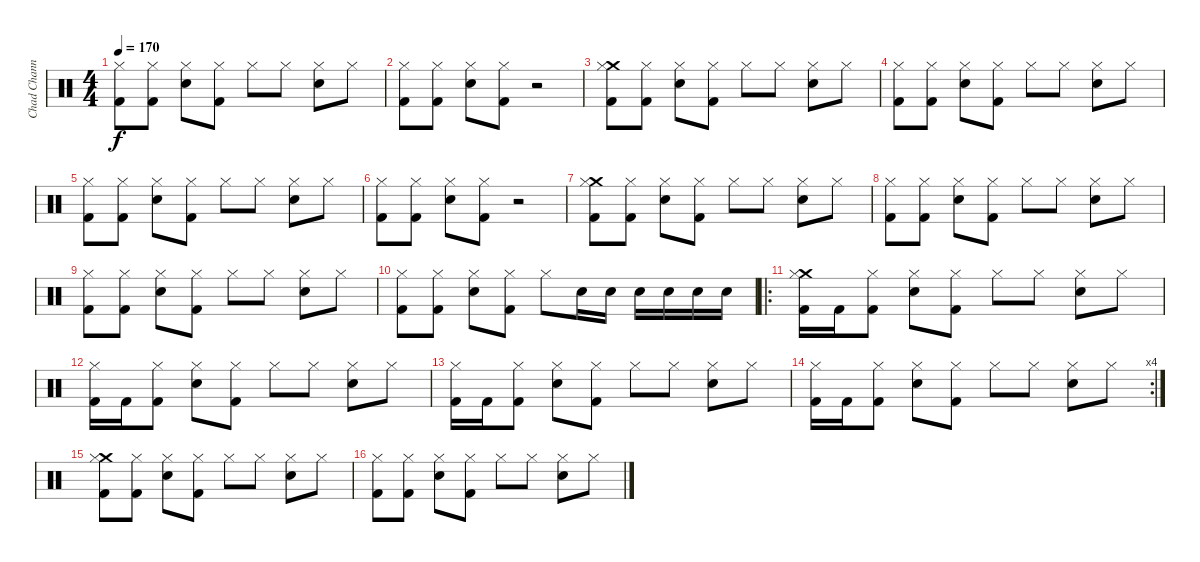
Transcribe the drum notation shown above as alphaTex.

\track ("Chad Channing" "Chad Chann") {instrument percussion}
\staff {score}
\articulation defaults
\ts (4 4)
\tempo 170
\clef neutral
\ks c
("Hi-Hat (closed)" "Kick (hit) 2").8{dy f} ("Hi-Hat (closed)" "Kick (hit) 2").8 ("Hi-Hat (closed)" "Snare (hit) 2").8 ("Hi-Hat (closed)" "Kick (hit) 2").8 "Hi-Hat (closed)".8 "Hi-Hat (closed)".8 ("Hi-Hat (closed)" "Snare (hit) 2").8 "Hi-Hat (closed)".8 |
("Hi-Hat (closed)" "Kick (hit) 2").8 ("Hi-Hat (closed)" "Kick (hit) 2").8 ("Hi-Hat (closed)" "Snare (hit) 2").8 ("Hi-Hat (closed)" "Kick (hit) 2").8 r.2 |
("Crash medium (hit)" "Hi-Hat (closed)" "Kick (hit) 2").8 ("Hi-Hat (closed)" "Kick (hit) 2").8 ("Hi-Hat (closed)" "Snare (hit) 2").8 ("Hi-Hat (closed)" "Kick (hit) 2").8 "Hi-Hat (closed)".8 "Hi-Hat (closed)".8 ("Hi-Hat (closed)" "Snare (hit) 2").8 "Hi-Hat (closed)".8 |
("Hi-Hat (closed)" "Kick (hit) 2").8 ("Hi-Hat (closed)" "Kick (hit) 2").8 ("Hi-Hat (closed)" "Snare (hit) 2").8 ("Hi-Hat (closed)" "Kick (hit) 2").8 "Hi-Hat (closed)".8 "Hi-Hat (closed)".8 ("Hi-Hat (closed)" "Snare (hit) 2").8 "Hi-Hat (closed)".8 |
("Hi-Hat (closed)" "Kick (hit) 2").8 ("Hi-Hat (closed)" "Kick (hit) 2").8 ("Hi-Hat (closed)" "Snare (hit) 2").8 ("Hi-Hat (closed)" "Kick (hit) 2").8 "Hi-Hat (closed)".8 "Hi-Hat (closed)".8 ("Hi-Hat (closed)" "Snare (hit) 2").8 "Hi-Hat (closed)".8 |
("Hi-Hat (closed)" "Kick (hit) 2").8 ("Hi-Hat (closed)" "Kick (hit) 2").8 ("Hi-Hat (closed)" "Snare (hit) 2").8 ("Hi-Hat (closed)" "Kick (hit) 2").8 r.2 |
("Crash medium (hit)" "Hi-Hat (closed)" "Kick (hit) 2").8 ("Hi-Hat (closed)" "Kick (hit) 2").8 ("Hi-Hat (closed)" "Snare (hit) 2").8 ("Hi-Hat (closed)" "Kick (hit) 2").8 "Hi-Hat (closed)".8 "Hi-Hat (closed)".8 ("Hi-Hat (closed)" "Snare (hit) 2").8 "Hi-Hat (closed)".8 |
("Hi-Hat (closed)" "Kick (hit) 2").8 ("Hi-Hat (closed)" "Kick (hit) 2").8 ("Hi-Hat (closed)" "Snare (hit) 2").8 ("Hi-Hat (closed)" "Kick (hit) 2").8 "Hi-Hat (closed)".8 "Hi-Hat (closed)".8 ("Hi-Hat (closed)" "Snare (hit) 2").8 "Hi-Hat (closed)".8 |
("Hi-Hat (closed)" "Kick (hit) 2").8 ("Hi-Hat (closed)" "Kick (hit) 2").8 ("Hi-Hat (closed)" "Snare (hit) 2").8 ("Hi-Hat (closed)" "Kick (hit) 2").8 "Hi-Hat (closed)".8 "Hi-Hat (closed)".8 ("Hi-Hat (closed)" "Snare (hit) 2").8 "Hi-Hat (closed)".8 |
("Hi-Hat (closed)" "Kick (hit) 2").8 ("Hi-Hat (closed)" "Kick (hit) 2").8 ("Hi-Hat (closed)" "Snare (hit) 2").8 ("Hi-Hat (closed)" "Kick (hit) 2").8 "Hi-Hat (closed)".8 "Snare (hit) 2".16 "Snare (hit) 2".16 "Snare (hit) 2".16 "Snare (hit) 2".16 "Snare (hit) 2".16 "Snare (hit) 2".16 |
\ro
("Crash medium (hit)" "Hi-Hat (closed)" "Kick (hit) 2").16 "Kick (hit) 2".16 ("Hi-Hat (closed)" "Kick (hit) 2").8 ("Hi-Hat (closed)" "Snare (hit) 2").8 ("Hi-Hat (closed)" "Kick (hit) 2").8 "Hi-Hat (closed)".8 "Hi-Hat (closed)".8 ("Hi-Hat (closed)" "Snare (hit) 2").8 "Hi-Hat (closed)".8 |
("Hi-Hat (closed)" "Kick (hit) 2").16 "Kick (hit) 2".16 ("Hi-Hat (closed)" "Kick (hit) 2").8 ("Hi-Hat (closed)" "Snare (hit) 2").8 ("Hi-Hat (closed)" "Kick (hit) 2").8 "Hi-Hat (closed)".8 "Hi-Hat (closed)".8 ("Hi-Hat (closed)" "Snare (hit) 2").8 "Hi-Hat (closed)".8 |
("Hi-Hat (closed)" "Kick (hit) 2").16 "Kick (hit) 2".16 ("Hi-Hat (closed)" "Kick (hit) 2").8 ("Hi-Hat (closed)" "Snare (hit) 2").8 ("Hi-Hat (closed)" "Kick (hit) 2").8 "Hi-Hat (closed)".8 "Hi-Hat (closed)".8 ("Hi-Hat (closed)" "Snare (hit) 2").8 "Hi-Hat (closed)".8 |
\rc 4
("Hi-Hat (closed)" "Kick (hit) 2").16 "Kick (hit) 2".16 ("Hi-Hat (closed)" "Kick (hit) 2").8 ("Hi-Hat (closed)" "Snare (hit) 2").8 ("Hi-Hat (closed)" "Kick (hit) 2").8 "Hi-Hat (closed)".8 "Hi-Hat (closed)".8 ("Hi-Hat (closed)" "Snare (hit) 2").8 "Hi-Hat (closed)".8 |
("Crash medium (hit)" "Hi-Hat (closed)" "Kick (hit) 2").8 ("Hi-Hat (closed)" "Kick (hit) 2").8 ("Hi-Hat (closed)" "Snare (hit) 2").8 ("Hi-Hat (closed)" "Kick (hit) 2").8 "Hi-Hat (closed)".8 "Hi-Hat (closed)".8 ("Hi-Hat (closed)" "Snare (hit) 2").8 "Hi-Hat (closed)".8 |
("Hi-Hat (closed)" "Kick (hit) 2").8 ("Hi-Hat (closed)" "Kick (hit) 2").8 ("Hi-Hat (closed)" "Snare (hit) 2").8 ("Hi-Hat (closed)" "Kick (hit) 2").8 "Hi-Hat (closed)".8 "Hi-Hat (closed)".8 ("Hi-Hat (closed)" "Snare (hit) 2").8 "Hi-Hat (closed)".8
